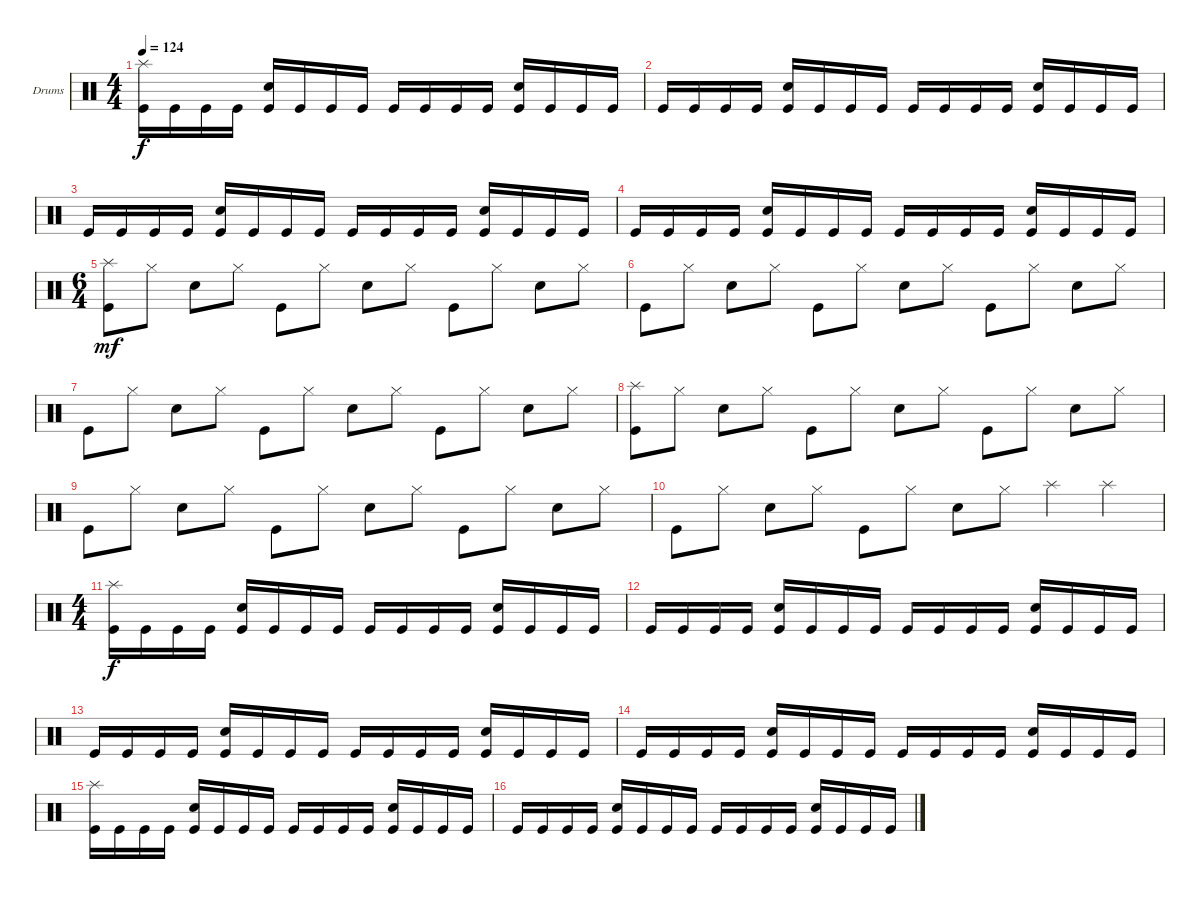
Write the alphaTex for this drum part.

\bracketExtendMode groupsimilarinstruments
\firstSystemTrackNameOrientation horizontal
\otherSystemsTrackNameOrientation horizontal
\track ("Drumkit" "Drums") {instrument percussion}
\staff {score}
\articulation defaults
\ts (4 4)
\tempo 124
\clef neutral
\ks c
("Kick (hit)" "Splash (hit)").16{dy f} "Kick (hit)".16 "Kick (hit)".16 "Kick (hit)".16 ("Snare (hit) 2" "Kick (hit)").16 "Kick (hit)".16 "Kick (hit)".16 "Kick (hit)".16 "Kick (hit)".16 "Kick (hit)".16 "Kick (hit)".16 "Kick (hit)".16 ("Snare (hit) 2" "Kick (hit)").16 "Kick (hit)".16 "Kick (hit)".16 "Kick (hit)".16 |
"Kick (hit)".16 "Kick (hit)".16 "Kick (hit)".16 "Kick (hit)".16 ("Snare (hit) 2" "Kick (hit)").16 "Kick (hit)".16 "Kick (hit)".16 "Kick (hit)".16 "Kick (hit)".16 "Kick (hit)".16 "Kick (hit)".16 "Kick (hit)".16 ("Snare (hit) 2" "Kick (hit)").16 "Kick (hit)".16 "Kick (hit)".16 "Kick (hit)".16 |
"Kick (hit)".16 "Kick (hit)".16 "Kick (hit)".16 "Kick (hit)".16 ("Snare (hit) 2" "Kick (hit)").16 "Kick (hit)".16 "Kick (hit)".16 "Kick (hit)".16 "Kick (hit)".16 "Kick (hit)".16 "Kick (hit)".16 "Kick (hit)".16 ("Snare (hit) 2" "Kick (hit)").16 "Kick (hit)".16 "Kick (hit)".16 "Kick (hit)".16 |
"Kick (hit)".16 "Kick (hit)".16 "Kick (hit)".16 "Kick (hit)".16 ("Snare (hit) 2" "Kick (hit)").16 "Kick (hit)".16 "Kick (hit)".16 "Kick (hit)".16 "Kick (hit)".16 "Kick (hit)".16 "Kick (hit)".16 "Kick (hit)".16 ("Snare (hit) 2" "Kick (hit)").16 "Kick (hit)".16 "Kick (hit)".16 "Kick (hit)".16 |
\ts (6 4)
("Kick (hit)" "Splash (hit)").8{dy mf} "Hi-Hat (closed)".8 "Snare (hit) 2".8 "Hi-Hat (closed)".8 "Kick (hit)".8 "Hi-Hat (closed)".8 "Snare (hit) 2".8 "Hi-Hat (closed)".8 "Kick (hit)".8 "Hi-Hat (closed)".8 "Snare (hit) 2".8 "Hi-Hat (closed)".8 |
"Kick (hit)".8 "Hi-Hat (closed)".8 "Snare (hit) 2".8 "Hi-Hat (closed)".8 "Kick (hit)".8 "Hi-Hat (closed)".8 "Snare (hit) 2".8 "Hi-Hat (closed)".8 "Kick (hit)".8 "Hi-Hat (closed)".8 "Snare (hit) 2".8 "Hi-Hat (closed)".8 |
"Kick (hit)".8 "Hi-Hat (closed)".8 "Snare (hit) 2".8 "Hi-Hat (closed)".8 "Kick (hit)".8 "Hi-Hat (closed)".8 "Snare (hit) 2".8 "Hi-Hat (closed)".8 "Kick (hit)".8 "Hi-Hat (closed)".8 "Snare (hit) 2".8 "Hi-Hat (closed)".8 |
("Kick (hit)" "Splash (hit)").8 "Hi-Hat (closed)".8 "Snare (hit) 2".8 "Hi-Hat (closed)".8 "Kick (hit)".8 "Hi-Hat (closed)".8 "Snare (hit) 2".8 "Hi-Hat (closed)".8 "Kick (hit)".8 "Hi-Hat (closed)".8 "Snare (hit) 2".8 "Hi-Hat (closed)".8 |
"Kick (hit)".8 "Hi-Hat (closed)".8 "Snare (hit) 2".8 "Hi-Hat (closed)".8 "Kick (hit)".8 "Hi-Hat (closed)".8 "Snare (hit) 2".8 "Hi-Hat (closed)".8 "Kick (hit)".8 "Hi-Hat (closed)".8 "Snare (hit) 2".8 "Hi-Hat (closed)".8 |
"Kick (hit)".8 "Hi-Hat (closed)".8 "Snare (hit) 2".8 "Hi-Hat (closed)".8 "Kick (hit)".8 "Hi-Hat (closed)".8 "Snare (hit) 2".8 "Hi-Hat (closed)".8 "Splash (hit)".4 "Splash (hit)".4 |
\ts (4 4)
("Kick (hit)" "Splash (hit)").16{dy f} "Kick (hit)".16 "Kick (hit)".16 "Kick (hit)".16 ("Snare (hit) 2" "Kick (hit)").16 "Kick (hit)".16 "Kick (hit)".16 "Kick (hit)".16 "Kick (hit)".16 "Kick (hit)".16 "Kick (hit)".16 "Kick (hit)".16 ("Snare (hit) 2" "Kick (hit)").16 "Kick (hit)".16 "Kick (hit)".16 "Kick (hit)".16 |
"Kick (hit)".16 "Kick (hit)".16 "Kick (hit)".16 "Kick (hit)".16 ("Snare (hit) 2" "Kick (hit)").16 "Kick (hit)".16 "Kick (hit)".16 "Kick (hit)".16 "Kick (hit)".16 "Kick (hit)".16 "Kick (hit)".16 "Kick (hit)".16 ("Snare (hit) 2" "Kick (hit)").16 "Kick (hit)".16 "Kick (hit)".16 "Kick (hit)".16 |
"Kick (hit)".16 "Kick (hit)".16 "Kick (hit)".16 "Kick (hit)".16 ("Snare (hit) 2" "Kick (hit)").16 "Kick (hit)".16 "Kick (hit)".16 "Kick (hit)".16 "Kick (hit)".16 "Kick (hit)".16 "Kick (hit)".16 "Kick (hit)".16 ("Snare (hit) 2" "Kick (hit)").16 "Kick (hit)".16 "Kick (hit)".16 "Kick (hit)".16 |
"Kick (hit)".16 "Kick (hit)".16 "Kick (hit)".16 "Kick (hit)".16 ("Snare (hit) 2" "Kick (hit)").16 "Kick (hit)".16 "Kick (hit)".16 "Kick (hit)".16 "Kick (hit)".16 "Kick (hit)".16 "Kick (hit)".16 "Kick (hit)".16 ("Snare (hit) 2" "Kick (hit)").16 "Kick (hit)".16 "Kick (hit)".16 "Kick (hit)".16 |
("Kick (hit)" "Splash (hit)").16 "Kick (hit)".16 "Kick (hit)".16 "Kick (hit)".16 ("Snare (hit) 2" "Kick (hit)").16 "Kick (hit)".16 "Kick (hit)".16 "Kick (hit)".16 "Kick (hit)".16 "Kick (hit)".16 "Kick (hit)".16 "Kick (hit)".16 ("Snare (hit) 2" "Kick (hit)").16 "Kick (hit)".16 "Kick (hit)".16 "Kick (hit)".16 |
"Kick (hit)".16 "Kick (hit)".16 "Kick (hit)".16 "Kick (hit)".16 ("Snare (hit) 2" "Kick (hit)").16 "Kick (hit)".16 "Kick (hit)".16 "Kick (hit)".16 "Kick (hit)".16 "Kick (hit)".16 "Kick (hit)".16 "Kick (hit)".16 ("Snare (hit) 2" "Kick (hit)").16 "Kick (hit)".16 "Kick (hit)".16 "Kick (hit)".16
